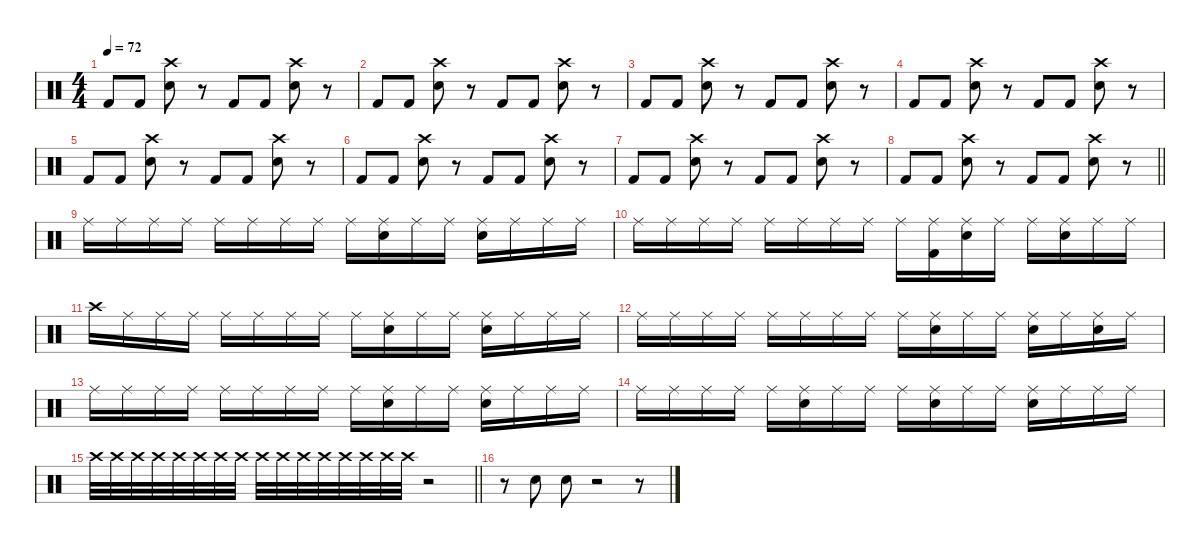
\defaultSystemsLayout 4
\hideDynamics
\bracketExtendMode nobrackets
\singleTrackTrackNamePolicy hidden
\multiTrackTrackNamePolicy hidden
\otherSystemsTrackNameOrientation horizontal
\track ("Drums" "drm.") {instrument percussion}
\staff {score}
\articulation defaults
\ts (4 4)
\tempo 72
\clef neutral
\ks c "Kick (hit) 2".8{dy f beam Up} "Kick (hit) 2".8{dy fff beam Up}
("Snare (hit) 2" "Crash high (hit)").8{beam Down} r.8{beam Down} "Kick (hit) 2".8{beam Up} "Kick (hit) 2".8{beam Up} ("Snare (hit) 2" "Crash high (hit)").8{beam Down} r.8{beam Down} |
"Kick (hit) 2".8{dy f beam Up} "Kick (hit) 2".8{dy fff beam Up} ("Snare (hit) 2" "Crash high (hit)").8{beam Down} r.8{beam Down} "Kick (hit) 2".8{beam Up} "Kick (hit) 2".8{beam Up} ("Snare (hit) 2" "Crash high (hit)").8{beam Down} r.8{beam Down} |
"Kick (hit) 2".8{dy f beam Up} "Kick (hit) 2".8{dy fff beam Up} ("Snare (hit) 2" "Crash high (hit)").8{beam Down} r.8{beam Down} "Kick (hit) 2".8{beam Up} "Kick (hit) 2".8{beam Up} ("Snare (hit) 2" "Crash high (hit)").8{beam Down} r.8{beam Down} |
"Kick (hit) 2".8{dy f beam Up} "Kick (hit) 2".8{dy fff beam Up} ("Snare (hit) 2" "Crash high (hit)").8{beam Down} r.8{beam Down} "Kick (hit) 2".8{beam Up} "Kick (hit) 2".8{beam Up} ("Snare (hit) 2" "Crash high (hit)").8{beam Down} r.8{beam Down} |
"Kick (hit) 2".8{dy f beam Up} "Kick (hit) 2".8{dy fff beam Up} ("Snare (hit) 2" "Crash high (hit)").8{beam Down} r.8{beam Down} "Kick (hit) 2".8{beam Up} "Kick (hit) 2".8{beam Up} ("Snare (hit) 2" "Crash high (hit)").8{beam Down} r.8{beam Down} |
"Kick (hit) 2".8{dy f beam Up} "Kick (hit) 2".8{dy fff beam Up} ("Snare (hit) 2" "Crash high (hit)").8{beam Down} r.8{beam Down} "Kick (hit) 2".8{beam Up} "Kick (hit) 2".8{beam Up} ("Snare (hit) 2" "Crash high (hit)").8{beam Down} r.8{beam Down} |
"Kick (hit) 2".8{dy f beam Up} "Kick (hit) 2".8{dy fff beam Up} ("Snare (hit) 2" "Crash high (hit)").8{beam Down} r.8{beam Down} "Kick (hit) 2".8{beam Up} "Kick (hit) 2".8{beam Up} ("Snare (hit) 2" "Crash high (hit)").8{beam Down} r.8{beam Down} |
\barLineRight lightlight "Kick (hit) 2".8{dy f beam Up} "Kick (hit) 2".8{dy fff beam Up}
("Snare (hit) 2" "Crash high (hit)").8{beam Down} r.8{beam Down} "Kick (hit) 2".8{beam Up} "Kick (hit) 2".8{beam Up} ("Snare (hit) 2" "Crash high (hit)").8{beam Down} r.8{beam Down} |
"Ride (middle)".16{dy p beam Down} "Ride (middle)".16{dy mp beam Down} "Ride (middle)".16{dy mf beam Down} "Ride (middle)".16{dy ff beam Down} "Ride (middle)".16{dy mp beam Down} "Ride (middle)".16{beam Down} "Ride (middle)".16{dy f beam Down} "Ride (middle)".16{dy mp beam Down} "Ride (middle)".16{beam Down} ("Snare (hit) 2" "Ride (middle)").16{dy ff beam Down} "Ride (middle)".16{dy mp beam Down} "Ride (middle)".16{dy mf beam Down} ("Snare (hit) 2" "Ride (middle)").16{dy fff beam Down} "Ride (middle)".16{dy mf beam Down} "Ride (middle)".16{beam Down} "Ride (middle)".16{dy ff beam Down} |
"Ride (middle)".16{dy f beam Down} "Ride (middle)".16{dy mf beam Down} "Ride (middle)".16{beam Down} "Ride (middle)".16{dy f beam Down} "Ride (middle)".16{dy mf beam Down} "Ride (middle)".16{dy mp beam Down} "Ride (middle)".16{dy f beam Down} "Ride (middle)".16{dy mf beam Down} "Ride (middle)".16{dy f beam Down} ("Kick (hit) 2" "Ride (middle)").16{beam Down} ("Snare (hit) 2" "Ride (middle)").16{beam Down} "Ride (middle)".16{dy mf beam Down} "Ride (middle)".16{dy f beam Down} ("Snare (hit) 2" "Ride (middle)").16{dy ff beam Down} "Ride (middle)".16{dy f beam Down} "Ride (middle)".16{beam Down} |
"Crash high (hit)".16{beam Down} "Ride (middle)".16{dy mp beam Down} "Ride (middle)".16{dy f beam Down} "Ride (middle)".16{beam Down} "Ride (middle)".16{beam Down} "Ride (middle)".16{dy mf beam Down} "Ride (middle)".16{beam Down} "Ride (middle)".16{dy f beam Down} "Ride (middle)".16{dy mp beam Down} ("Snare (hit) 2" "Ride (middle)").16{dy ff beam Down} "Ride (middle)".16{dy f beam Down} "Ride (middle)".16{dy mf beam Down} ("Snare (hit) 2" "Ride (middle)").16{dy ff beam Down} "Ride (middle)".16{dy mf beam Down} "Ride (middle)".16{dy f beam Down} "Ride (middle)".16{beam Down} |
"Ride (middle)".16{beam Down} "Ride (middle)".16{dy mf beam Down} "Ride (middle)".16{beam Down} "Ride (middle)".16{dy f beam Down} "Ride (middle)".16{beam Down} "Ride (middle)".16{dy mp beam Down} "Ride (middle)".16{dy mf beam Down} "Ride (middle)".16{dy f beam Down} "Ride (middle)".16{dy mp beam Down} ("Snare (hit) 2" "Ride (middle)").16{dy f beam Down} "Ride (middle)".16{dy ff beam Down} "Ride (middle)".16{dy mf beam Down} ("Snare (hit) 2" "Ride (middle)").16{dy ff beam Down} "Ride (middle)".16{dy mf beam Down} ("Snare (hit) 2" "Ride (middle)").16{dy ff beam Down} "Ride (middle)".16{dy f beam Down} |
"Ride (middle)".16{beam Down} "Ride (middle)".16{beam Down} "Ride (middle)".16{dy mf beam Down} "Ride (middle)".16{dy ff beam Down} "Ride (middle)".16{dy mp beam Down} "Ride (middle)".16{dy mf beam Down} "Ride (middle)".16{dy ff beam Down} "Ride (middle)".16{dy mf beam Down} "Ride (middle)".16{dy mp beam Down} ("Snare (hit) 2" "Ride (middle)").16{dy f beam Down} "Ride (middle)".16{beam Down} "Ride (middle)".16{dy mf beam Down} ("Snare (hit) 2" "Ride (middle)").16{dy ff beam Down} "Ride (middle)".16{dy f beam Down} "Ride (middle)".16{beam Down} "Ride (middle)".16{beam Down} |
"Ride (middle)".16{beam Down} "Ride (middle)".16{beam Down} "Ride (middle)".16{beam Down} "Ride (middle)".16{dy ff beam Down} "Ride (middle)".16{dy f beam Down} ("Snare (hit) 2" "Ride (middle)").16{beam Down} "Ride (middle)".16{beam Down} "Ride (middle)".16{beam Down} "Ride (middle)".16{dy ff beam Down} ("Snare (hit) 2" "Ride (middle)").16{dy f beam Down} "Ride (middle)".16{dy mp beam Down} "Ride (middle)".16{dy mf beam Down} ("Snare (hit) 2" "Ride (middle)").16{dy f beam Down} "Ride (middle)".16{dy mf beam Down} "Ride (middle)".16{dy f beam Down} "Ride (middle)".16{beam Down} |
\barLineRight lightlight "Crash high (hit)".32{dy pp beam Down} "Crash high (hit)".32{beam Down} "Crash high (hit)".32{dy p beam Down} "Crash high (hit)".32{beam Down} "Crash high (hit)".32{beam Down} "Crash high (hit)".32{beam Down} "Crash high (hit)".32{beam Down} "Crash high (hit)".32{beam Down} "Crash high (hit)".32{dy mp beam Down} "Crash high (hit)".32{beam Down} "Crash high (hit)".32{beam Down} "Crash high (hit)".32{beam Down} "Crash high (hit)".32{beam Down} "Crash high (hit)".32{beam Down} "Crash high (hit)".32{dy mf beam Down} "Crash high (hit)".32{beam Down}
r.2{beam Down} |
r.8{beam Down} "Hand Clap (hit)".8{dy fff beam Down} "Hand Clap (hit)".8{beam Down} r.2{beam Down} r.8{beam Down}
